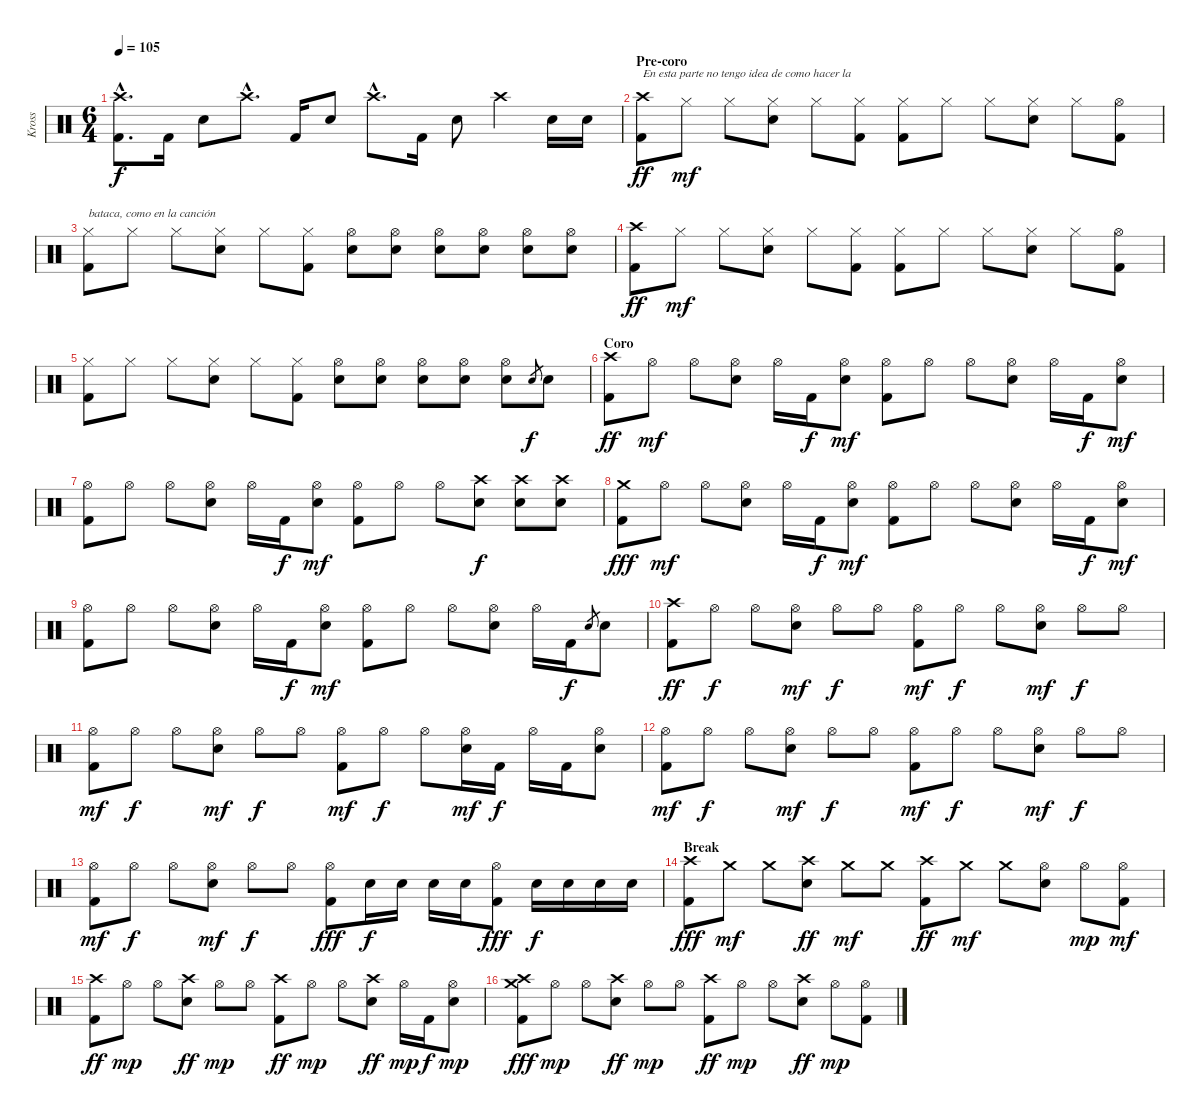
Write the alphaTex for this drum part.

\track ("Kross" "Kross") {instrument percussion}
\staff {score}
\articulation defaults
\ts (6 4)
\tempo 105
\clef neutral
\ks c
("Crash high (hit)"{hac} "Kick (hit) 2"{hac}).8{d dy f} "Kick (hit) 2".16 "Electric Snare (hit)".8 "Crash high (hit)"{hac}.8{d} "Kick (hit) 2".16 "Electric Snare (hit)".8 "Crash high (hit)"{hac}.8{d} "Kick (hit) 2".16 "Electric Snare (hit)".8 "Crash high (hit)".4 "Electric Snare (hit)".16 "Electric Snare (hit)".16 |
\section ("" "Pre-coro")
("Crash high (hit)" "Kick (hit) 2").8{txt "En esta parte no tengo idea de como hacer la " dy ff} "Hi-Hat (closed)".8{dy mf} "Hi-Hat (closed)".8 ("Hi-Hat (closed)" "Electric Snare (hit)").8 "Hi-Hat (closed)".8 ("Hi-Hat (closed)" "Kick (hit) 2").8 ("Hi-Hat (closed)" "Kick (hit) 2").8 "Hi-Hat (closed)".8 "Hi-Hat (closed)".8 ("Hi-Hat (closed)" "Electric Snare (hit)").8 "Hi-Hat (closed)".8 ("Hi-Hat (open)" "Kick (hit) 2").8 |
("Hi-Hat (closed)" "Kick (hit) 2").8{txt "bataca, como en la canción"} "Hi-Hat (closed)".8 "Hi-Hat (closed)".8 ("Hi-Hat (closed)" "Electric Snare (hit)").8 "Hi-Hat (closed)".8 ("Hi-Hat (closed)" "Kick (hit) 2").8 ("Hi-Hat (open)" "Electric Snare (hit)").8 ("Hi-Hat (open)" "Electric Snare (hit)").8 ("Hi-Hat (open)" "Electric Snare (hit)").8 ("Hi-Hat (open)" "Electric Snare (hit)").8 ("Hi-Hat (open)" "Electric Snare (hit)").8 ("Hi-Hat (open)" "Electric Snare (hit)").8 |
("Crash high (hit)" "Kick (hit) 2").8{dy ff} "Hi-Hat (closed)".8{dy mf} "Hi-Hat (closed)".8 ("Hi-Hat (closed)" "Electric Snare (hit)").8 "Hi-Hat (closed)".8 ("Hi-Hat (closed)" "Kick (hit) 2").8 ("Hi-Hat (closed)" "Kick (hit) 2").8 "Hi-Hat (closed)".8 "Hi-Hat (closed)".8 ("Hi-Hat (closed)" "Electric Snare (hit)").8 "Hi-Hat (closed)".8 ("Hi-Hat (open)" "Kick (hit) 2").8 |
("Hi-Hat (closed)" "Kick (hit) 2").8 "Hi-Hat (closed)".8 "Hi-Hat (closed)".8 ("Hi-Hat (closed)" "Electric Snare (hit)").8 "Hi-Hat (closed)".8 ("Hi-Hat (closed)" "Kick (hit) 2").8 ("Hi-Hat (open)" "Electric Snare (hit)").8 ("Hi-Hat (open)" "Electric Snare (hit)").8 ("Hi-Hat (open)" "Electric Snare (hit)").8 ("Hi-Hat (open)" "Electric Snare (hit)").8 ("Hi-Hat (open)" "Electric Snare (hit)").8 "Electric Snare (hit)".8{gr dy f} "Electric Snare (hit)".8 |
\section ("" "Coro")
("Crash high (hit)" "Kick (hit) 2").8{dy ff} "Hi-Hat (open)".8{dy mf} "Hi-Hat (open)".8 ("Hi-Hat (open)" "Electric Snare (hit)").8 "Hi-Hat (open)".16 "Kick (hit) 2".16{dy f} ("Hi-Hat (open)" "Electric Snare (hit)").8{dy mf} ("Hi-Hat (open)" "Kick (hit) 2").8 "Hi-Hat (open)".8 "Hi-Hat (open)".8 ("Hi-Hat (open)" "Electric Snare (hit)").8 "Hi-Hat (open)".16 "Kick (hit) 2".16{dy f} ("Hi-Hat (open)" "Electric Snare (hit)").8{dy mf} |
("Hi-Hat (open)" "Kick (hit) 2").8 "Hi-Hat (open)".8 "Hi-Hat (open)".8 ("Hi-Hat (open)" "Electric Snare (hit)").8 "Hi-Hat (open)".16 "Kick (hit) 2".16{dy f} ("Hi-Hat (open)" "Electric Snare (hit)").8{dy mf} ("Hi-Hat (open)" "Kick (hit) 2").8 "Hi-Hat (open)".8 "Hi-Hat (open)".8 ("Crash high (hit)" "Electric Snare (hit)").8{dy f} ("Crash high (hit)" "Electric Snare (hit)").8 ("Crash high (hit)" "Electric Snare (hit)").8 |
("Crash medium (hit)" "Kick (hit) 2").8{dy fff} "Hi-Hat (open)".8{dy mf} "Hi-Hat (open)".8 ("Hi-Hat (open)" "Electric Snare (hit)").8 "Hi-Hat (open)".16 "Kick (hit) 2".16{dy f} ("Hi-Hat (open)" "Electric Snare (hit)").8{dy mf} ("Hi-Hat (open)" "Kick (hit) 2").8 "Hi-Hat (open)".8 "Hi-Hat (open)".8 ("Hi-Hat (open)" "Electric Snare (hit)").8 "Hi-Hat (open)".16 "Kick (hit) 2".16{dy f} ("Hi-Hat (open)" "Electric Snare (hit)").8{dy mf} |
("Hi-Hat (open)" "Kick (hit) 2").8 "Hi-Hat (open)".8 "Hi-Hat (open)".8 ("Hi-Hat (open)" "Electric Snare (hit)").8 "Hi-Hat (open)".16 "Kick (hit) 2".16{dy f} ("Hi-Hat (open)" "Electric Snare (hit)").8{dy mf} ("Hi-Hat (open)" "Kick (hit) 2").8 "Hi-Hat (open)".8 "Hi-Hat (open)".8 ("Hi-Hat (open)" "Electric Snare (hit)").8 "Hi-Hat (open)".16 "Kick (hit) 2".16{dy f} "Electric Snare (hit)".8{gr} "Electric Snare (hit)".8 |
("Crash high (hit)" "Kick (hit) 2").8{dy ff} "Hi-Hat (open)".8{dy f} "Hi-Hat (open)".8 ("Hi-Hat (open)" "Electric Snare (hit)").8{dy mf} "Hi-Hat (open)".8{dy f} "Hi-Hat (open)".8 ("Hi-Hat (open)" "Kick (hit) 2").8{dy mf} "Hi-Hat (open)".8{dy f} "Hi-Hat (open)".8 ("Hi-Hat (open)" "Electric Snare (hit)").8{dy mf} "Hi-Hat (open)".8{dy f} "Hi-Hat (open)".8 |
("Hi-Hat (open)" "Kick (hit) 2").8{dy mf} "Hi-Hat (open)".8{dy f} "Hi-Hat (open)".8 ("Hi-Hat (open)" "Electric Snare (hit)").8{dy mf} "Hi-Hat (open)".8{dy f} "Hi-Hat (open)".8 ("Hi-Hat (open)" "Kick (hit) 2").8{dy mf} "Hi-Hat (open)".8{dy f} "Hi-Hat (open)".8 ("Hi-Hat (open)" "Electric Snare (hit)").16{dy mf} "Kick (hit) 2".16{dy f} "Hi-Hat (open)".16 "Kick (hit) 2".16 ("Hi-Hat (open)" "Electric Snare (hit)").8 |
("Hi-Hat (open)" "Kick (hit) 2").8{dy mf} "Hi-Hat (open)".8{dy f} "Hi-Hat (open)".8 ("Hi-Hat (open)" "Electric Snare (hit)").8{dy mf} "Hi-Hat (open)".8{dy f} "Hi-Hat (open)".8 ("Hi-Hat (open)" "Kick (hit) 2").8{dy mf} "Hi-Hat (open)".8{dy f} "Hi-Hat (open)".8 ("Hi-Hat (open)" "Electric Snare (hit)").8{dy mf} "Hi-Hat (open)".8{dy f} "Hi-Hat (open)".8 |
("Hi-Hat (open)" "Kick (hit) 2").8{dy mf} "Hi-Hat (open)".8{dy f} "Hi-Hat (open)".8 ("Hi-Hat (open)" "Electric Snare (hit)").8{dy mf} "Hi-Hat (open)".8{dy f} "Hi-Hat (open)".8 ("Hi-Hat (open)" "Kick (hit) 2").8{dy fff} "Electric Snare (hit)".16{dy f} "Electric Snare (hit)".16 "Electric Snare (hit)".16 "Electric Snare (hit)".16 ("Hi-Hat (open)" "Kick (hit) 2").8{dy fff} "Electric Snare (hit)".16{dy f} "Electric Snare (hit)".16 "Electric Snare (hit)".16 "Electric Snare (hit)".16 |
\section ("" "Break")
("Crash high (hit)" "Kick (hit) 2").8{dy fff} "Crash medium (hit)".8{dy mf} "Crash medium (hit)".8 ("Crash high (hit)" "Electric Snare (hit)").8{dy ff} "Crash medium (hit)".8{dy mf} "Crash medium (hit)".8 ("Crash high (hit)" "Kick (hit) 2").8{dy ff} "Crash medium (hit)".8{dy mf} "Crash medium (hit)".8 ("Hi-Hat (open)" "Electric Snare (hit)").8 "Hi-Hat (open)".8{dy mp} ("Hi-Hat (open)" "Kick (hit) 2").8{dy mf} |
("Crash high (hit)" "Kick (hit) 2").8{dy ff} "Hi-Hat (open)".8{dy mp} "Hi-Hat (open)".8 ("Crash high (hit)" "Electric Snare (hit)").8{dy ff} "Hi-Hat (open)".8{dy mp} "Hi-Hat (open)".8 ("Crash high (hit)" "Kick (hit) 2").8{dy ff} "Hi-Hat (open)".8{dy mp} "Hi-Hat (open)".8 ("Crash high (hit)" "Electric Snare (hit)").8{dy ff} "Hi-Hat (open)".16{dy mp} "Kick (hit) 2".16{dy f} ("Hi-Hat (open)" "Electric Snare (hit)").8{dy mp} |
("Crash high (hit)" "Crash medium (hit)" "Kick (hit) 2").8{dy fff} "Hi-Hat (open)".8{dy mp} "Hi-Hat (open)".8 ("Crash high (hit)" "Electric Snare (hit)").8{dy ff} "Hi-Hat (open)".8{dy mp} "Hi-Hat (open)".8 ("Crash high (hit)" "Kick (hit) 2").8{dy ff} "Hi-Hat (open)".8{dy mp} "Hi-Hat (open)".8 ("Crash high (hit)" "Electric Snare (hit)").8{dy ff} "Hi-Hat (open)".8{dy mp} ("Hi-Hat (open)" "Kick (hit) 2").8
